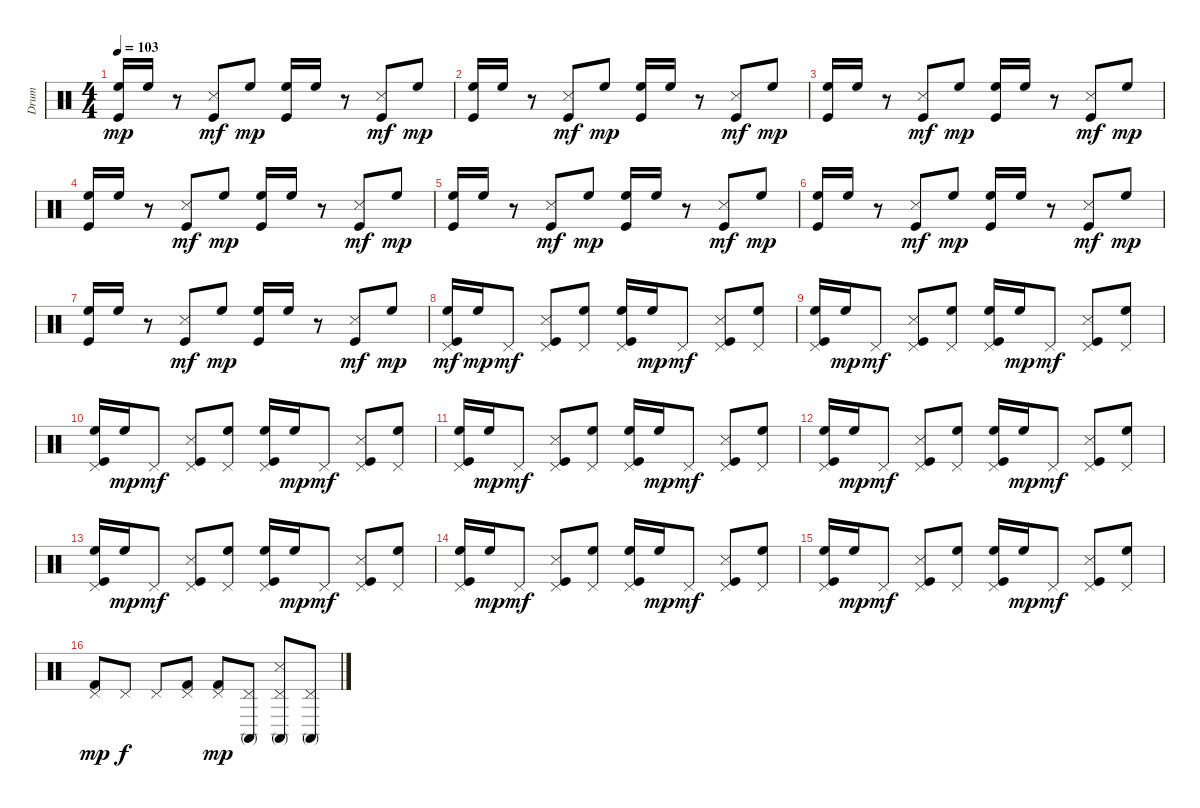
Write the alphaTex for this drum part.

\track ("Drum" "Drum") {instrument percussion}
\staff {score}
\articulation defaults
\ts (4 4)
\tempo 103
\clef neutral
\ks c
("Kick (hit)" "High Floor Tom (hit)").16{dy mp} "High Floor Tom (hit)".16 r.8 ("Kick (hit)" "Snare (side stick) 3").8{dy mf} "High Floor Tom (hit)".8{dy mp} ("Kick (hit)" "High Floor Tom (hit)").16 "High Floor Tom (hit)".16 r.8 ("Kick (hit)" "Snare (side stick) 3").8{dy mf} "High Floor Tom (hit)".8{dy mp} |
("Kick (hit)" "High Floor Tom (hit)").16 "High Floor Tom (hit)".16 r.8 ("Kick (hit)" "Snare (side stick) 3").8{dy mf} "High Floor Tom (hit)".8{dy mp} ("Kick (hit)" "High Floor Tom (hit)").16 "High Floor Tom (hit)".16 r.8 ("Kick (hit)" "Snare (side stick) 3").8{dy mf} "High Floor Tom (hit)".8{dy mp} |
("Kick (hit)" "High Floor Tom (hit)").16 "High Floor Tom (hit)".16 r.8 ("Kick (hit)" "Snare (side stick) 3").8{dy mf} "High Floor Tom (hit)".8{dy mp} ("Kick (hit)" "High Floor Tom (hit)").16 "High Floor Tom (hit)".16 r.8 ("Kick (hit)" "Snare (side stick) 3").8{dy mf} "High Floor Tom (hit)".8{dy mp} |
("Kick (hit)" "High Floor Tom (hit)").16 "High Floor Tom (hit)".16 r.8 ("Kick (hit)" "Snare (side stick) 3").8{dy mf} "High Floor Tom (hit)".8{dy mp} ("Kick (hit)" "High Floor Tom (hit)").16 "High Floor Tom (hit)".16 r.8 ("Kick (hit)" "Snare (side stick) 3").8{dy mf} "High Floor Tom (hit)".8{dy mp} |
("Kick (hit)" "High Floor Tom (hit)").16 "High Floor Tom (hit)".16 r.8 ("Kick (hit)" "Snare (side stick) 3").8{dy mf} "High Floor Tom (hit)".8{dy mp} ("Kick (hit)" "High Floor Tom (hit)").16 "High Floor Tom (hit)".16 r.8 ("Kick (hit)" "Snare (side stick) 3").8{dy mf} "High Floor Tom (hit)".8{dy mp} |
("Kick (hit)" "High Floor Tom (hit)").16 "High Floor Tom (hit)".16 r.8 ("Kick (hit)" "Snare (side stick) 3").8{dy mf} "High Floor Tom (hit)".8{dy mp} ("Kick (hit)" "High Floor Tom (hit)").16 "High Floor Tom (hit)".16 r.8 ("Kick (hit)" "Snare (side stick) 3").8{dy mf} "High Floor Tom (hit)".8{dy mp} |
("Kick (hit)" "High Floor Tom (hit)").16 "High Floor Tom (hit)".16 r.8 ("Kick (hit)" "Snare (side stick) 3").8{dy mf} "High Floor Tom (hit)".8{dy mp} ("Kick (hit)" "High Floor Tom (hit)").16 "High Floor Tom (hit)".16 r.8 ("Kick (hit)" "Snare (side stick) 3").8{dy mf} "High Floor Tom (hit)".8{dy mp} |
("Kick (hit)" "High Floor Tom (hit)" "Pedal Hi-Hat (hit)").16{dy mf volume 16} "High Floor Tom (hit)".16{dy mp} "Pedal Hi-Hat (hit)".8{dy mf} ("Kick (hit)" "Snare (side stick) 3" "Pedal Hi-Hat (hit)").8 ("High Floor Tom (hit)" "Pedal Hi-Hat (hit)").8 ("Kick (hit)" "High Floor Tom (hit)" "Pedal Hi-Hat (hit)").16 "High Floor Tom (hit)".16{dy mp} "Pedal Hi-Hat (hit)".8{dy mf} ("Kick (hit)" "Snare (side stick) 3" "Pedal Hi-Hat (hit)").8 ("High Floor Tom (hit)" "Pedal Hi-Hat (hit)").8 |
("Kick (hit)" "High Floor Tom (hit)" "Pedal Hi-Hat (hit)").16 "High Floor Tom (hit)".16{dy mp} "Pedal Hi-Hat (hit)".8{dy mf} ("Kick (hit)" "Snare (side stick) 3" "Pedal Hi-Hat (hit)").8 ("High Floor Tom (hit)" "Pedal Hi-Hat (hit)").8 ("Kick (hit)" "High Floor Tom (hit)" "Pedal Hi-Hat (hit)").16 "High Floor Tom (hit)".16{dy mp} "Pedal Hi-Hat (hit)".8{dy mf} ("Kick (hit)" "Snare (side stick) 3" "Pedal Hi-Hat (hit)").8 ("High Floor Tom (hit)" "Pedal Hi-Hat (hit)").8 |
("Kick (hit)" "High Floor Tom (hit)" "Pedal Hi-Hat (hit)").16 "High Floor Tom (hit)".16{dy mp} "Pedal Hi-Hat (hit)".8{dy mf} ("Kick (hit)" "Snare (side stick) 3" "Pedal Hi-Hat (hit)").8 ("High Floor Tom (hit)" "Pedal Hi-Hat (hit)").8 ("Kick (hit)" "High Floor Tom (hit)" "Pedal Hi-Hat (hit)").16 "High Floor Tom (hit)".16{dy mp} "Pedal Hi-Hat (hit)".8{dy mf} ("Kick (hit)" "Snare (side stick) 3" "Pedal Hi-Hat (hit)").8 ("High Floor Tom (hit)" "Pedal Hi-Hat (hit)").8 |
("Kick (hit)" "High Floor Tom (hit)" "Pedal Hi-Hat (hit)").16 "High Floor Tom (hit)".16{dy mp} "Pedal Hi-Hat (hit)".8{dy mf} ("Kick (hit)" "Snare (side stick) 3" "Pedal Hi-Hat (hit)").8 ("High Floor Tom (hit)" "Pedal Hi-Hat (hit)").8 ("Kick (hit)" "High Floor Tom (hit)" "Pedal Hi-Hat (hit)").16 "High Floor Tom (hit)".16{dy mp} "Pedal Hi-Hat (hit)".8{dy mf} ("Kick (hit)" "Snare (side stick) 3" "Pedal Hi-Hat (hit)").8 ("High Floor Tom (hit)" "Pedal Hi-Hat (hit)").8 |
("Kick (hit)" "High Floor Tom (hit)" "Pedal Hi-Hat (hit)").16 "High Floor Tom (hit)".16{dy mp} "Pedal Hi-Hat (hit)".8{dy mf} ("Kick (hit)" "Snare (side stick) 3" "Pedal Hi-Hat (hit)").8 ("High Floor Tom (hit)" "Pedal Hi-Hat (hit)").8 ("Kick (hit)" "High Floor Tom (hit)" "Pedal Hi-Hat (hit)").16 "High Floor Tom (hit)".16{dy mp} "Pedal Hi-Hat (hit)".8{dy mf} ("Kick (hit)" "Snare (side stick) 3" "Pedal Hi-Hat (hit)").8 ("High Floor Tom (hit)" "Pedal Hi-Hat (hit)").8 |
("Kick (hit)" "High Floor Tom (hit)" "Pedal Hi-Hat (hit)").16 "High Floor Tom (hit)".16{dy mp} "Pedal Hi-Hat (hit)".8{dy mf} ("Kick (hit)" "Snare (side stick) 3" "Pedal Hi-Hat (hit)").8 ("High Floor Tom (hit)" "Pedal Hi-Hat (hit)").8 ("Kick (hit)" "High Floor Tom (hit)" "Pedal Hi-Hat (hit)").16 "High Floor Tom (hit)".16{dy mp} "Pedal Hi-Hat (hit)".8{dy mf} ("Kick (hit)" "Snare (side stick) 3" "Pedal Hi-Hat (hit)").8 ("High Floor Tom (hit)" "Pedal Hi-Hat (hit)").8 |
("Kick (hit)" "High Floor Tom (hit)" "Pedal Hi-Hat (hit)").16 "High Floor Tom (hit)".16{dy mp} "Pedal Hi-Hat (hit)".8{dy mf} ("Kick (hit)" "Snare (side stick) 3" "Pedal Hi-Hat (hit)").8 ("High Floor Tom (hit)" "Pedal Hi-Hat (hit)").8 ("Kick (hit)" "High Floor Tom (hit)" "Pedal Hi-Hat (hit)").16 "High Floor Tom (hit)".16{dy mp} "Pedal Hi-Hat (hit)".8{dy mf} ("Kick (hit)" "Snare (side stick) 3" "Pedal Hi-Hat (hit)").8 ("High Floor Tom (hit)" "Pedal Hi-Hat (hit)").8 |
("Kick (hit)" "High Floor Tom (hit)" "Pedal Hi-Hat (hit)").16 "High Floor Tom (hit)".16{dy mp} "Pedal Hi-Hat (hit)".8{dy mf} ("Kick (hit)" "Snare (side stick) 3" "Pedal Hi-Hat (hit)").8 ("High Floor Tom (hit)" "Pedal Hi-Hat (hit)").8 ("Kick (hit)" "High Floor Tom (hit)" "Pedal Hi-Hat (hit)").16 "High Floor Tom (hit)".16{dy mp} "Pedal Hi-Hat (hit)".8{dy mf} ("Kick (hit)" "Snare (side stick) 3" "Pedal Hi-Hat (hit)").8 ("High Floor Tom (hit)" "Pedal Hi-Hat (hit)").8 |
("Pedal Hi-Hat (hit)" "Kick (hit) 2").8{dy mp} "Pedal Hi-Hat (hit)".8{dy f} "Pedal Hi-Hat (hit)".8 ("Pedal Hi-Hat (hit)" "Kick (hit) 2").8 ("Pedal Hi-Hat (hit)" "Kick (hit) 2").8{dy mp} ("Pedal Hi-Hat (hit)" "Conga high (mute)").8 ("Pedal Hi-Hat (hit)" "Conga high (mute)" "Metronome (hit)").8 ("Pedal Hi-Hat (hit)" "Conga high (mute)").8
